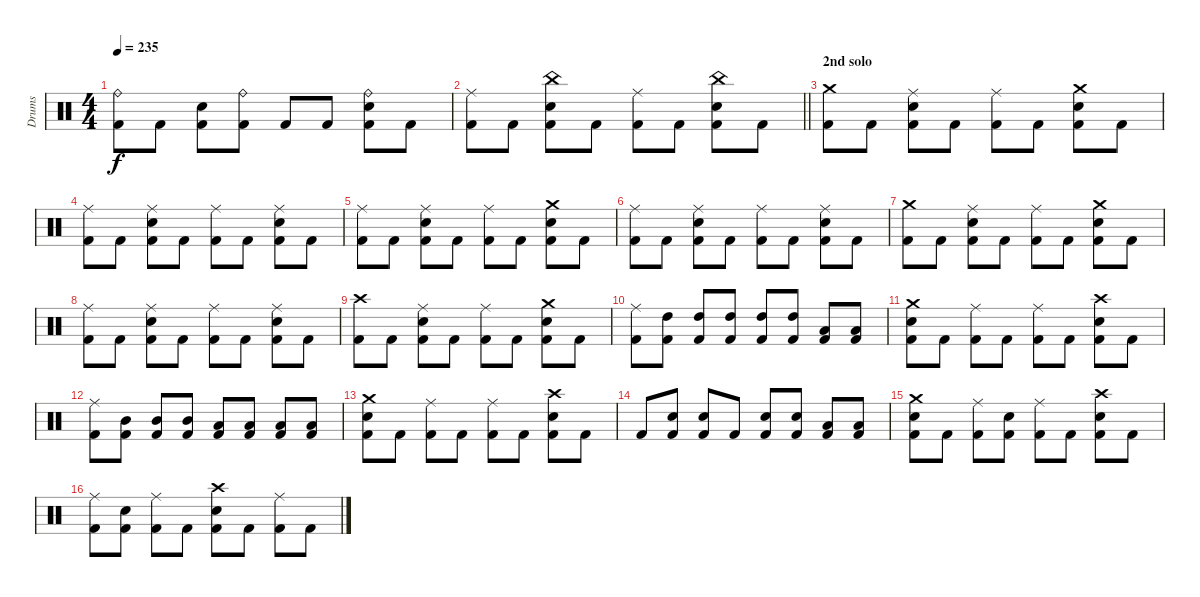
\track ("Drums" "Drums") {instrument percussion}
\staff {score}
\articulation defaults
\ts (4 4)
\tempo 235
\clef neutral
\ks aminor
("Ride (bell)" "Kick (hit) 2").8{dy f} "Kick (hit) 2".8 ("Electric Snare (hit)" "Kick (hit) 2").8 ("Ride (bell)" "Kick (hit) 2").8 "Kick (hit) 2".8 "Kick (hit) 2".8 ("Electric Snare (hit)" "Ride (bell)" "Kick (hit) 2").8 "Kick (hit) 2".8 |
\barLineRight lightlight
("Ride (middle)" "Kick (hit) 2").8 "Kick (hit) 2".8 ("Electric Snare (hit)" "China (hit)" "Kick (hit) 2").8 "Kick (hit) 2".8 ("Ride (middle)" "Kick (hit) 2").8 "Kick (hit) 2".8 ("Electric Snare (hit)" "China (hit)" "Kick (hit) 2").8 "Kick (hit) 2".8 |
\section ("" "2nd solo")
("Crash medium (hit)" "Kick (hit) 2").8 "Kick (hit) 2".8 ("Ride (middle)" "Electric Snare (hit)" "Kick (hit) 2").8 "Kick (hit) 2".8 ("Ride (middle)" "Kick (hit) 2").8 "Kick (hit) 2".8 ("Electric Snare (hit)" "Crash medium (hit)" "Kick (hit) 2").8 "Kick (hit) 2".8 |
("Kick (hit) 2" "Ride (middle)").8 "Kick (hit) 2".8 ("Kick (hit) 2" "Ride (middle)" "Electric Snare (hit)").8 "Kick (hit) 2".8 ("Kick (hit) 2" "Ride (middle)").8 "Kick (hit) 2".8 ("Kick (hit) 2" "Ride (middle)" "Electric Snare (hit)").8 "Kick (hit) 2".8 |
("Kick (hit) 2" "Ride (middle)").8 "Kick (hit) 2".8 ("Kick (hit) 2" "Ride (middle)" "Electric Snare (hit)").8 "Kick (hit) 2".8 ("Kick (hit) 2" "Ride (middle)").8 "Kick (hit) 2".8 ("Kick (hit) 2" "Crash medium (hit)" "Electric Snare (hit)").8 "Kick (hit) 2".8 |
("Kick (hit) 2" "Ride (middle)").8 "Kick (hit) 2".8 ("Kick (hit) 2" "Ride (middle)" "Electric Snare (hit)").8 "Kick (hit) 2".8 ("Kick (hit) 2" "Ride (middle)").8 "Kick (hit) 2".8 ("Kick (hit) 2" "Ride (middle)" "Electric Snare (hit)").8 "Kick (hit) 2".8 |
("Crash medium (hit)" "Kick (hit) 2").8 "Kick (hit) 2".8 ("Ride (middle)" "Electric Snare (hit)" "Kick (hit) 2").8 "Kick (hit) 2".8 ("Ride (middle)" "Kick (hit) 2").8 "Kick (hit) 2".8 ("Electric Snare (hit)" "Crash medium (hit)" "Kick (hit) 2").8 "Kick (hit) 2".8 |
("Kick (hit) 2" "Ride (middle)").8 "Kick (hit) 2".8 ("Kick (hit) 2" "Ride (middle)" "Electric Snare (hit)").8 "Kick (hit) 2".8 ("Kick (hit) 2" "Ride (middle)").8 "Kick (hit) 2".8 ("Kick (hit) 2" "Ride (middle)" "Electric Snare (hit)").8 "Kick (hit) 2".8 |
("Crash high (hit)" "Kick (hit) 2").8 "Kick (hit) 2".8 ("Ride (middle)" "Electric Snare (hit)" "Kick (hit) 2").8 "Kick (hit) 2".8 ("Ride (middle)" "Kick (hit) 2").8 "Kick (hit) 2".8 ("Electric Snare (hit)" "Crash medium (hit)" "Kick (hit) 2").8 "Kick (hit) 2".8 |
("Ride (middle)" "Kick (hit) 2").8 ("High Tom (hit)" "Kick (hit) 2").8 ("High Tom (hit)" "Kick (hit) 2").8 ("High Tom (hit)" "Kick (hit) 2").8 ("High Tom (hit)" "Kick (hit) 2").8 ("High Tom (hit)" "Kick (hit) 2").8 ("Low Tom (hit)" "Kick (hit) 2").8 ("Low Tom (hit)" "Kick (hit) 2").8 |
("Crash medium (hit)" "Electric Snare (hit)" "Kick (hit) 2").8 "Kick (hit) 2".8 ("Ride (middle)" "Kick (hit) 2").8 "Kick (hit) 2".8 ("Ride (middle)" "Kick (hit) 2").8 "Kick (hit) 2".8 ("Electric Snare (hit)" "Crash high (hit)" "Kick (hit) 2").8 "Kick (hit) 2".8 |
("Ride (middle)" "Kick (hit) 2").8 ("Mid Tom (hit)" "Kick (hit) 2").8 ("Mid Tom (hit)" "Kick (hit) 2").8 ("Mid Tom (hit)" "Kick (hit) 2").8 ("Low Tom (hit)" "Kick (hit) 2").8 ("Low Tom (hit)" "Kick (hit) 2").8 ("Low Floor Tom (hit)" "Kick (hit) 2").8 ("Low Floor Tom (hit)" "Kick (hit) 2").8 |
("Crash medium (hit)" "Electric Snare (hit)" "Kick (hit) 2").8 "Kick (hit) 2".8 ("Ride (middle)" "Kick (hit) 2").8 "Kick (hit) 2".8 ("Ride (middle)" "Kick (hit) 2").8 "Kick (hit) 2".8 ("Electric Snare (hit)" "Crash high (hit)" "Kick (hit) 2").8 "Kick (hit) 2".8 |
"Kick (hit) 2".8 ("Electric Snare (hit)" "Kick (hit) 2").8 ("Electric Snare (hit)" "Kick (hit) 2").8 "Kick (hit) 2".8 ("Electric Snare (hit)" "Kick (hit) 2").8 ("Electric Snare (hit)" "Kick (hit) 2").8 ("Low Tom (hit)" "Kick (hit) 2").8 ("Low Tom (hit)" "Kick (hit) 2").8 |
("Crash medium (hit)" "Electric Snare (hit)" "Kick (hit) 2").8 "Kick (hit) 2".8 ("Ride (middle)" "Kick (hit) 2").8 ("Electric Snare (hit)" "Kick (hit) 2").8 ("Ride (middle)" "Kick (hit) 2").8 "Kick (hit) 2".8 ("Electric Snare (hit)" "Crash high (hit)" "Kick (hit) 2").8 "Kick (hit) 2".8 |
("Ride (middle)" "Kick (hit) 2").8 ("Electric Snare (hit)" "Kick (hit) 2").8 ("Ride (middle)" "Kick (hit) 2").8 "Kick (hit) 2".8 ("Crash high (hit)" "Electric Snare (hit)" "Kick (hit) 2").8 "Kick (hit) 2".8 ("Ride (middle)" "Kick (hit) 2").8 "Kick (hit) 2".8
